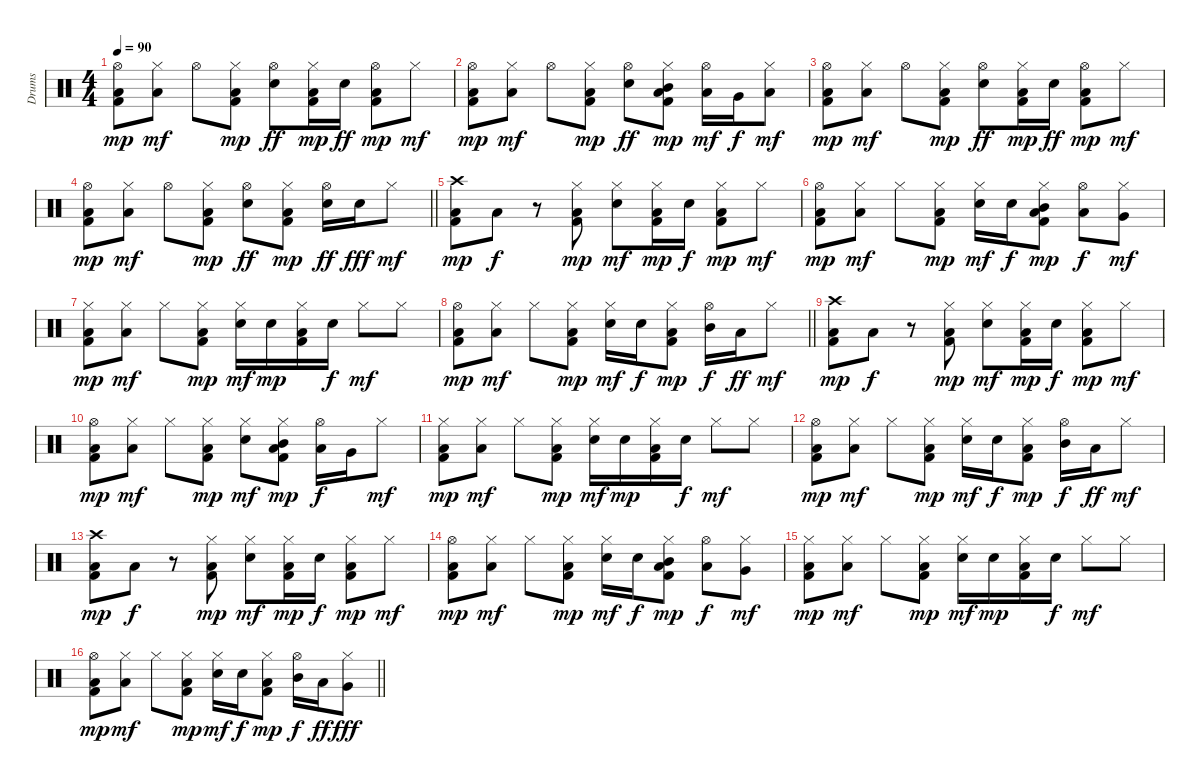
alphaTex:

\track ("Drums" "Drums") {instrument percussion}
\staff {score}
\articulation defaults
\ts (4 4)
\tempo 90
\clef neutral
\ks c
("Hi-Hat (open)" "Kick (hit) 2" "Low Floor Tom (hit)").8{dy mp} ("Hi-Hat (closed)" "Low Tom (hit)").8{dy mf} "Hi-Hat (open)".8 ("Hi-Hat (closed)" "Kick (hit) 2" "Low Floor Tom (hit)").8{dy mp} ("Hi-Hat (open)" "Snare (hit) 2").8{dy ff} ("Hi-Hat (closed)" "Kick (hit) 2" "Low Floor Tom (hit)").16{dy mp} "Snare (hit) 2".16{dy ff} ("Hi-Hat (open)" "Kick (hit) 2" "Low Floor Tom (hit)").8{dy mp} "Hi-Hat (closed)".8{dy mf} |
("Hi-Hat (open)" "Kick (hit) 2" "Low Floor Tom (hit)").8{dy mp} ("Hi-Hat (closed)" "Low Tom (hit)").8{dy mf} "Hi-Hat (open)".8 ("Hi-Hat (closed)" "Kick (hit) 2" "Low Floor Tom (hit)").8{dy mp} ("Hi-Hat (open)" "Snare (hit) 2").8{dy ff} ("Hi-Hat (closed)" "Mid Tom (hit)" "Kick (hit) 2" "Low Floor Tom (hit)").8{dy mp} ("Hi-Hat (open)" "Low Tom (hit)").16{dy mf} "Very Low Tom (hit)".16{dy f} ("Hi-Hat (closed)" "Low Floor Tom (hit)").8{dy mf} |
("Hi-Hat (open)" "Kick (hit) 2" "Low Floor Tom (hit)").8{dy mp} ("Hi-Hat (closed)" "Low Tom (hit)").8{dy mf} "Hi-Hat (open)".8 ("Hi-Hat (closed)" "Kick (hit) 2" "Low Floor Tom (hit)").8{dy mp} ("Hi-Hat (open)" "Snare (hit) 2").8{dy ff} ("Hi-Hat (closed)" "Kick (hit) 2" "Low Floor Tom (hit)").16{dy mp} "Snare (hit) 2".16{dy ff} ("Hi-Hat (open)" "Kick (hit) 2" "Low Floor Tom (hit)").8{dy mp} "Hi-Hat (closed)".8{dy mf} |
\barLineRight lightlight
("Hi-Hat (open)" "Kick (hit) 2" "Low Floor Tom (hit)").8{dy mp} ("Hi-Hat (closed)" "Low Tom (hit)").8{dy mf} "Hi-Hat (open)".8 ("Hi-Hat (closed)" "Kick (hit) 2" "Low Floor Tom (hit)").8{dy mp} ("Hi-Hat (open)" "Snare (hit) 2").8{dy ff} ("Hi-Hat (closed)" "Kick (hit) 2" "Low Floor Tom (hit)").8{dy mp} ("Hi-Hat (open)" "Snare (hit) 2").16{dy ff} "Snare (hit) 2".16{dy fff} "Hi-Hat (closed)".8{dy mf} |
\section ("" "")
("Crash high (hit)" "Kick (hit) 2" "Low Floor Tom (hit)").8{dy mp} "Low Tom (hit)".8{dy f} r.8 ("Hi-Hat (closed)" "Kick (hit) 2" "Low Floor Tom (hit)").8{dy mp} ("Hi-Hat (closed)" "Snare (hit) 2").8{dy mf} ("Hi-Hat (closed)" "Kick (hit) 2" "Low Floor Tom (hit)").16{dy mp} "Snare (hit) 2".16{dy f} ("Hi-Hat (closed)" "Kick (hit) 2" "Low Floor Tom (hit)").8{dy mp} "Hi-Hat (closed)".8{dy mf} |
("Hi-Hat (open)" "Kick (hit) 2" "Low Floor Tom (hit)").8{dy mp} ("Hi-Hat (closed)" "Low Tom (hit)").8{dy mf} "Hi-Hat (closed)".8 ("Hi-Hat (closed)" "Kick (hit) 2" "Low Floor Tom (hit)").8{dy mp} ("Hi-Hat (closed)" "Snare (hit) 2").16{dy mf} "Snare (hit) 2".16{dy f} ("Hi-Hat (closed)" "Mid Tom (hit)" "Kick (hit) 2" "Low Floor Tom (hit)").8{dy mp} ("Hi-Hat (open)" "Low Tom (hit)").8{dy f} ("Hi-Hat (closed)" "Very Low Tom (hit)").8{dy mf} |
("Hi-Hat (closed)" "Kick (hit) 2" "Low Floor Tom (hit)").8{dy mp} ("Hi-Hat (closed)" "Low Tom (hit)").8{dy mf} "Hi-Hat (closed)".8 ("Hi-Hat (closed)" "Kick (hit) 2" "Low Floor Tom (hit)").8{dy mp} ("Hi-Hat (closed)" "Snare (hit) 2").16{dy mf} "Snare (hit) 2".16{dy mp} ("Hi-Hat (closed)" "Kick (hit) 2" "Low Floor Tom (hit)").16 "Snare (hit) 2".16{dy f} "Hi-Hat (closed)".8{dy mf} "Hi-Hat (closed)".8 |
\barLineRight lightlight
("Hi-Hat (open)" "Kick (hit) 2" "Low Floor Tom (hit)").8{dy mp} ("Hi-Hat (closed)" "Low Tom (hit)").8{dy mf} "Hi-Hat (closed)".8 ("Hi-Hat (closed)" "Kick (hit) 2" "Low Floor Tom (hit)").8{dy mp} ("Hi-Hat (closed)" "Snare (hit) 2").16{dy mf} "Snare (hit) 2".16{dy f} ("Hi-Hat (closed)" "Kick (hit) 2" "Low Floor Tom (hit)").8{dy mp} ("Hi-Hat (open)" "Mid Tom (hit)").16{dy f} "Low Tom (hit)".16{dy ff} "Hi-Hat (closed)".8{dy mf} |
\section ("" "")
("Crash high (hit)" "Kick (hit) 2" "Low Floor Tom (hit)").8{dy mp} "Low Tom (hit)".8{dy f} r.8 ("Hi-Hat (closed)" "Kick (hit) 2" "Low Floor Tom (hit)").8{dy mp} ("Hi-Hat (closed)" "Snare (hit) 2").8{dy mf} ("Hi-Hat (closed)" "Kick (hit) 2" "Low Floor Tom (hit)").16{dy mp} "Snare (hit) 2".16{dy f} ("Hi-Hat (closed)" "Kick (hit) 2" "Low Floor Tom (hit)").8{dy mp} "Hi-Hat (closed)".8{dy mf} |
("Hi-Hat (open)" "Kick (hit) 2" "Low Floor Tom (hit)").8{dy mp} ("Hi-Hat (closed)" "Low Tom (hit)").8{dy mf} "Hi-Hat (closed)".8 ("Hi-Hat (closed)" "Kick (hit) 2" "Low Floor Tom (hit)").8{dy mp} ("Hi-Hat (closed)" "Snare (hit) 2").8{dy mf} ("Hi-Hat (closed)" "Mid Tom (hit)" "Kick (hit) 2" "Low Floor Tom (hit)").8{dy mp} ("Hi-Hat (open)" "Low Tom (hit)").16{dy f} "Very Low Tom (hit)".16 "Hi-Hat (closed)".8{dy mf} |
("Hi-Hat (closed)" "Kick (hit) 2" "Low Floor Tom (hit)").8{dy mp} ("Hi-Hat (closed)" "Low Tom (hit)").8{dy mf} "Hi-Hat (closed)".8 ("Hi-Hat (closed)" "Kick (hit) 2" "Low Floor Tom (hit)").8{dy mp} ("Hi-Hat (closed)" "Snare (hit) 2").16{dy mf} "Snare (hit) 2".16{dy mp} ("Hi-Hat (closed)" "Kick (hit) 2" "Low Floor Tom (hit)").16 "Snare (hit) 2".16{dy f} "Hi-Hat (closed)".8{dy mf} "Hi-Hat (closed)".8 |
("Hi-Hat (open)" "Kick (hit) 2" "Low Floor Tom (hit)").8{dy mp} ("Hi-Hat (closed)" "Low Tom (hit)").8{dy mf} "Hi-Hat (closed)".8 ("Hi-Hat (closed)" "Kick (hit) 2" "Low Floor Tom (hit)").8{dy mp} ("Hi-Hat (closed)" "Snare (hit) 2").16{dy mf} "Snare (hit) 2".16{dy f} ("Hi-Hat (closed)" "Kick (hit) 2" "Low Floor Tom (hit)").8{dy mp} ("Hi-Hat (open)" "Mid Tom (hit)").16{dy f} "Low Tom (hit)".16{dy ff} "Hi-Hat (closed)".8{dy mf} |
("Crash high (hit)" "Kick (hit) 2" "Low Floor Tom (hit)").8{dy mp} "Low Tom (hit)".8{dy f} r.8 ("Hi-Hat (closed)" "Kick (hit) 2" "Low Floor Tom (hit)").8{dy mp} ("Hi-Hat (closed)" "Snare (hit) 2").8{dy mf} ("Hi-Hat (closed)" "Kick (hit) 2" "Low Floor Tom (hit)").16{dy mp} "Snare (hit) 2".16{dy f} ("Hi-Hat (closed)" "Kick (hit) 2" "Low Floor Tom (hit)").8{dy mp} "Hi-Hat (closed)".8{dy mf} |
("Hi-Hat (open)" "Kick (hit) 2" "Low Floor Tom (hit)").8{dy mp} ("Hi-Hat (closed)" "Low Tom (hit)").8{dy mf} "Hi-Hat (closed)".8 ("Hi-Hat (closed)" "Kick (hit) 2" "Low Floor Tom (hit)").8{dy mp} ("Hi-Hat (closed)" "Snare (hit) 2").16{dy mf} "Snare (hit) 2".16{dy f} ("Hi-Hat (closed)" "Mid Tom (hit)" "Kick (hit) 2" "Low Floor Tom (hit)").8{dy mp} ("Hi-Hat (open)" "Low Tom (hit)").8{dy f} ("Hi-Hat (closed)" "Very Low Tom (hit)").8{dy mf} |
("Hi-Hat (closed)" "Kick (hit) 2" "Low Floor Tom (hit)").8{dy mp} ("Hi-Hat (closed)" "Low Tom (hit)").8{dy mf} "Hi-Hat (closed)".8 ("Hi-Hat (closed)" "Kick (hit) 2" "Low Floor Tom (hit)").8{dy mp} ("Hi-Hat (closed)" "Snare (hit) 2").16{dy mf} "Snare (hit) 2".16{dy mp} ("Hi-Hat (closed)" "Kick (hit) 2" "Low Floor Tom (hit)").16 "Snare (hit) 2".16{dy f} "Hi-Hat (closed)".8{dy mf} "Hi-Hat (closed)".8 |
\barLineRight lightlight
("Hi-Hat (open)" "Kick (hit) 2" "Low Floor Tom (hit)").8{dy mp} ("Hi-Hat (closed)" "Low Tom (hit)").8{dy mf} "Hi-Hat (closed)".8 ("Hi-Hat (closed)" "Kick (hit) 2" "Low Floor Tom (hit)").8{dy mp} ("Hi-Hat (closed)" "Snare (hit) 2").16{dy mf} "Snare (hit) 2".16{dy f} ("Hi-Hat (closed)" "Kick (hit) 2" "Low Floor Tom (hit)").8{dy mp} ("Hi-Hat (open)" "Mid Tom (hit)").16{dy f} "Low Tom (hit)".16{dy ff} ("Hi-Hat (closed)" "Very Low Tom (hit)").8{dy fff}
